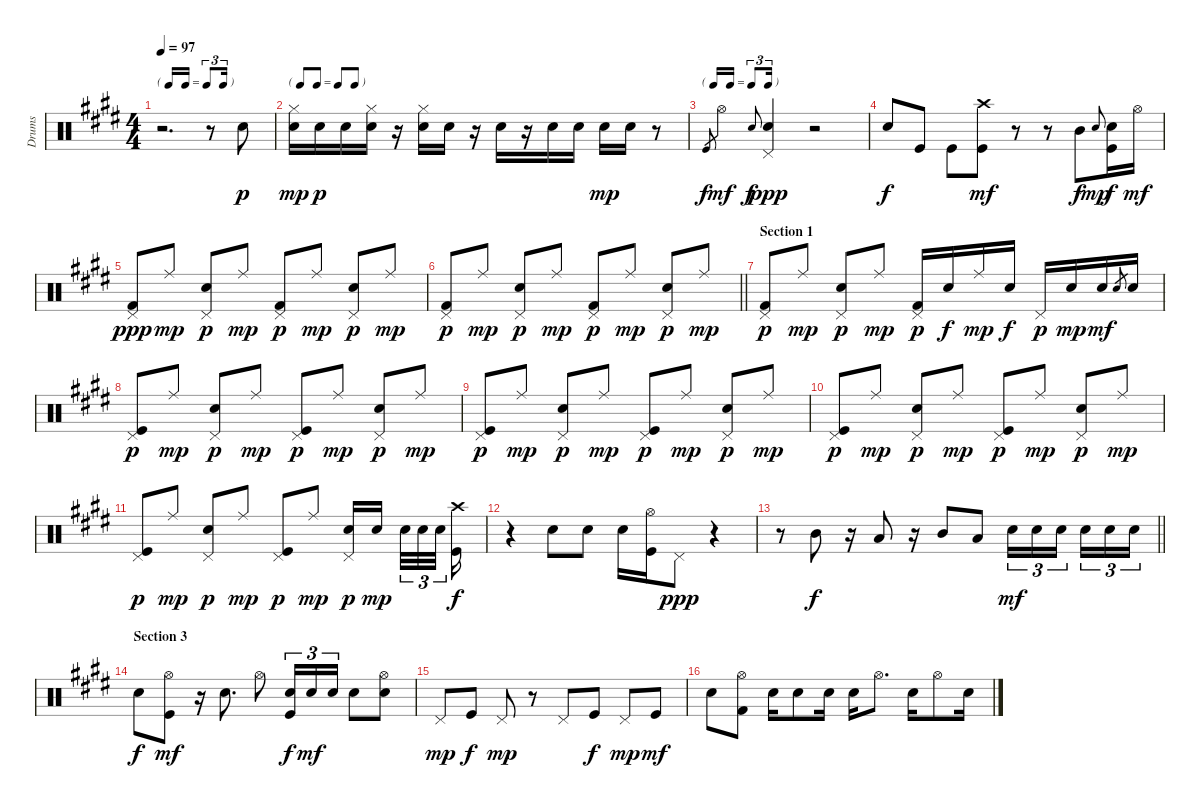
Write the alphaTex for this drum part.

\track ("Drums" "Drums") {instrument percussion}
\staff {score}
\articulation defaults
\ts (4 4)
\tf triplet16th
\tempo 97
\clef neutral
\ks e
r.2{d dy p} r.8 "Snare (hit) 2".8 |
\tf none
\ks c#minor
("Hi-Hat (closed)" "Snare (hit) 2").16{dy mp} "Snare (hit) 2".16{dy p} "Snare (hit) 2".16 ("Hi-Hat (closed)" "Snare (hit) 2").16 r.16 ("Hi-Hat (closed)" "Snare (hit) 2").16 "Snare (hit) 2".16 r.16 "Snare (hit) 2".16 r.16 "Snare (hit) 2".16 "Snare (hit) 2".16 "Snare (hit) 2".16{dy mp} "Snare (hit) 2".16 r.8 |
\tf triplet16th
\ks e "Kick (hit)".8{gr dy f} "Hi-Hat (open)".4{dy mf} "Snare (hit) 2".8{gr onbeat dy f}
("Pedal Hi-Hat (hit)" "Snare (hit) 2").4{dy ppp} r.2 |
\ks c#minor "Snare (hit) 2".8{dy f} "Kick (hit)".8 "Kick (hit)".8
("Crash high (hit)" "Kick (hit)").8{dy mf} r.8 r.8 "Mid Tom (hit)".8{dy f} "Snare (hit) 2".8{gr onbeat dy mp} ("Snare (hit) 2" "Kick (hit)").16{dy f} "Hi-Hat (open)".16{dy mf} |
\ks e
("Pedal Hi-Hat (hit)" "Kick (hit) 2").8{dy ppp} "Ride (middle)".8{dy mp} ("Snare (hit) 2" "Pedal Hi-Hat (hit)").8{dy p} "Ride (middle)".8{dy mp} ("Pedal Hi-Hat (hit)" "Kick (hit) 2").8{dy p} "Ride (middle)".8{dy mp} ("Snare (hit) 2" "Pedal Hi-Hat (hit)").8{dy p} "Ride (middle)".8{dy mp} |
\barLineRight lightlight
\ks c#minor
("Pedal Hi-Hat (hit)" "Kick (hit) 2").8{dy p} "Ride (middle)".8{dy mp} ("Snare (hit) 2" "Pedal Hi-Hat (hit)").8{dy p} "Ride (middle)".8{dy mp} ("Pedal Hi-Hat (hit)" "Kick (hit) 2").8{dy p} "Ride (middle)".8{dy mp} ("Snare (hit) 2" "Pedal Hi-Hat (hit)").8{dy p} "Ride (middle)".8{dy mp} |
\section ("" "Section 1")
\ks e
("Pedal Hi-Hat (hit)" "Kick (hit) 2").8{dy p} "Ride (middle)".8{dy mp} ("Snare (hit) 2" "Pedal Hi-Hat (hit)").8{dy p} "Ride (middle)".8{dy mp} ("Pedal Hi-Hat (hit)" "Kick (hit) 2").16{dy p} "Snare (hit) 2".16{dy f} "Ride (middle)".16{dy mp} "Snare (hit) 2".16{dy f} "Pedal Hi-Hat (hit)".16{dy p} "Snare (hit) 2".16{dy mp} "Snare (hit) 2".16{dy mf} "Electric Snare (hit)".8{gr} "Snare (hit) 2".16 |
\ks c#minor
("Pedal Hi-Hat (hit)" "Kick (hit)").8{dy p} "Ride (middle)".8{dy mp} ("Snare (hit) 2" "Pedal Hi-Hat (hit)").8{dy p} "Ride (middle)".8{dy mp} ("Pedal Hi-Hat (hit)" "Kick (hit)").8{dy p} "Ride (middle)".8{dy mp} ("Snare (hit) 2" "Pedal Hi-Hat (hit)").8{dy p} "Ride (middle)".8{dy mp} |
\ks e
("Pedal Hi-Hat (hit)" "Kick (hit)").8{dy p} "Ride (middle)".8{dy mp} ("Snare (hit) 2" "Pedal Hi-Hat (hit)").8{dy p} "Ride (middle)".8{dy mp} ("Pedal Hi-Hat (hit)" "Kick (hit)").8{dy p} "Ride (middle)".8{dy mp} ("Snare (hit) 2" "Pedal Hi-Hat (hit)").8{dy p} "Ride (middle)".8{dy mp} |
\ks c#minor
("Pedal Hi-Hat (hit)" "Kick (hit)").8{dy p} "Ride (middle)".8{dy mp} ("Snare (hit) 2" "Pedal Hi-Hat (hit)").8{dy p} "Ride (middle)".8{dy mp} ("Pedal Hi-Hat (hit)" "Kick (hit)").8{dy p} "Ride (middle)".8{dy mp} ("Snare (hit) 2" "Pedal Hi-Hat (hit)").8{dy p} "Ride (middle)".8{dy mp} |
\ks e
("Pedal Hi-Hat (hit)" "Kick (hit)").8{dy p} "Ride (middle)".8{dy mp} ("Snare (hit) 2" "Pedal Hi-Hat (hit)").8{dy p} "Ride (middle)".8{dy mp} ("Pedal Hi-Hat (hit)" "Kick (hit)").8{dy p} "Ride (middle)".8{dy mp} ("Snare (hit) 2" "Pedal Hi-Hat (hit)").16{dy p} "Snare (hit) 2".16{dy mp beam splitsecondary} "Snare (hit) 2".32{tu (3 2)} "Snare (hit) 2".32{tu (3 2)} "Snare (hit) 2".32{tu (3 2) beam splitsecondary} ("Crash high (hit)" "Kick (hit)").16{dy f} |
\ks c#minor
r.4 "Snare (hit) 2".8 "Snare (hit) 2".8 "Snare (hit) 2".16 ("Hi-Hat (open)" "Kick (hit)").16 "Pedal Hi-Hat (hit)".8{dy ppp} r.4 |
\barLineRight lightlight
\ks e
r.8 "Mid Tom (hit)".8{dy f} r.16 "Low Tom (hit)".8 r.16 "Mid Tom (hit)".8 "Low Tom (hit)".8 "Snare (hit) 2".16{tu (3 2) dy mf} "Snare (hit) 2".16{tu (3 2)} "Snare (hit) 2".16{tu (3 2) beam splitsecondary} "Snare (hit) 2".16{tu (3 2)} "Snare (hit) 2".16{tu (3 2)} "Snare (hit) 2".16{tu (3 2)} |
\section ("" "Section 3")
\ks c#minor "Snare (hit) 2".8{dy f}
("Hi-Hat (open)" "Kick (hit)").8{dy mf} r.16 "Snare (hit) 2".8{d} "Hi-Hat (open)".8 ("Snare (hit) 2" "Kick (hit)").16{tu (3 2) dy f} "Snare (hit) 2".16{tu (3 2) dy mf} "Snare (hit) 2".16{tu (3 2)} "Snare (hit) 2".8 ("Hi-Hat (open)" "Snare (hit) 2").8 |
\ks e "Pedal Hi-Hat (hit)".8{dy mp} "Kick (hit)".8{dy f} "Pedal Hi-Hat (hit)".8{dy mp}
r.8 "Pedal Hi-Hat (hit)".8 "Kick (hit)".8{dy f} "Pedal Hi-Hat (hit)".8{dy mp} "Kick (hit)".8{dy mf} |
\ks c#minor "Snare (hit) 2".8
("Hi-Hat (open)" "Kick (hit) 2").8 "Snare (hit) 2".16 "Snare (hit) 2".8 "Snare (hit) 2".16 "Snare (hit) 2".16 "Hi-Hat (open)".8{d} "Snare (hit) 2".16 "Hi-Hat (open)".8 "Snare (hit) 2".16
